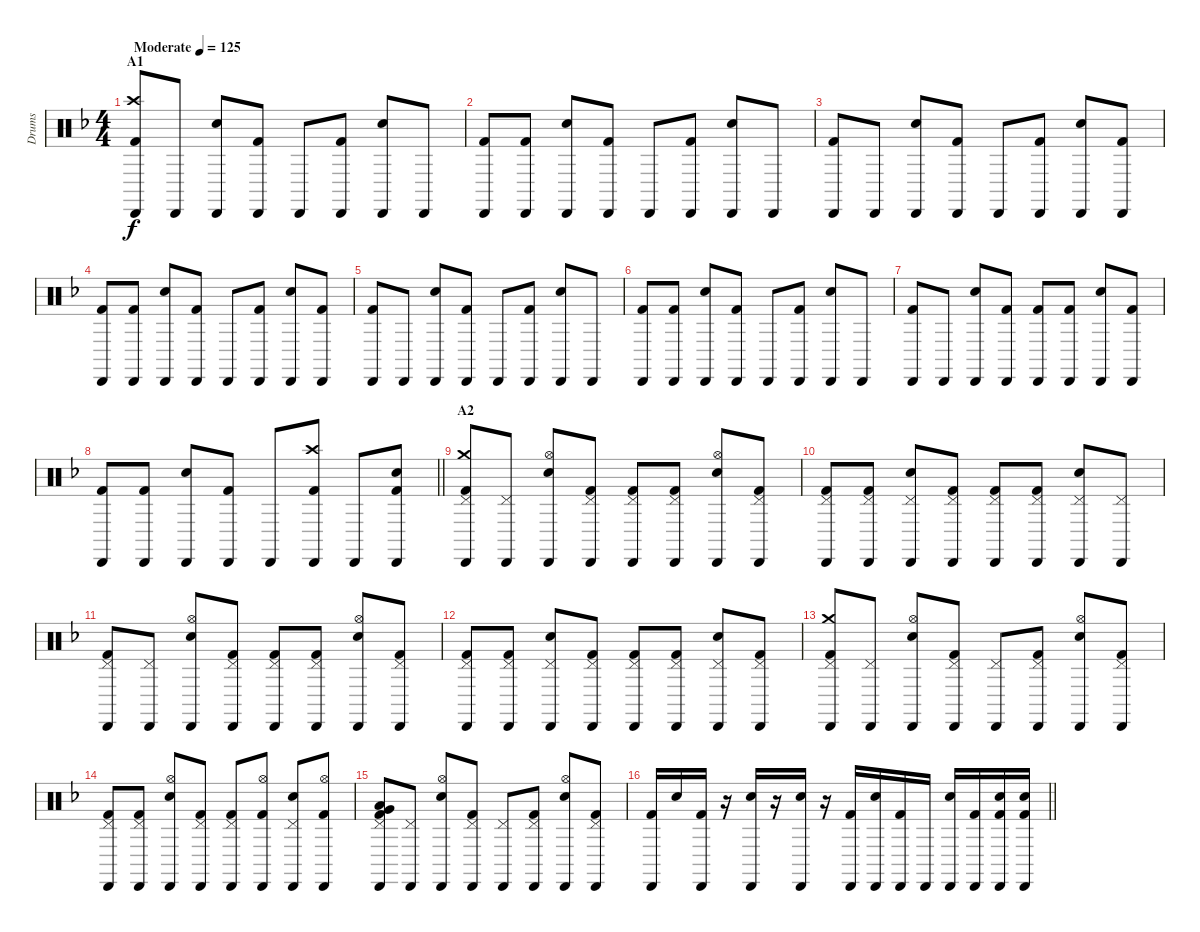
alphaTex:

\track ("Drums" "Drums") {instrument percussion}
\staff {score}
\articulation defaults
\ts (4 4)
\section ("" "A1")
\tempo (125 "Moderate")
\clef neutral
\ks f
("Cabasa (hit)" "Kick (hit) 2" "Crash high (hit)").8{dy f} "Cabasa (hit)".8 ("Cabasa (hit)" "Electric Snare (hit)").8 ("Cabasa (hit)" "Kick (hit) 2").8 "Cabasa (hit)".8 ("Cabasa (hit)" "Kick (hit) 2").8 ("Cabasa (hit)" "Electric Snare (hit)").8 "Cabasa (hit)".8 |
("Cabasa (hit)" "Kick (hit) 2").8 ("Cabasa (hit)" "Kick (hit) 2").8 ("Cabasa (hit)" "Electric Snare (hit)").8 ("Cabasa (hit)" "Kick (hit) 2").8 "Cabasa (hit)".8 ("Cabasa (hit)" "Kick (hit) 2").8 ("Cabasa (hit)" "Electric Snare (hit)").8 "Cabasa (hit)".8 |
("Cabasa (hit)" "Kick (hit) 2").8 "Cabasa (hit)".8 ("Cabasa (hit)" "Electric Snare (hit)").8 ("Cabasa (hit)" "Kick (hit) 2").8 "Cabasa (hit)".8 ("Cabasa (hit)" "Kick (hit) 2").8 ("Cabasa (hit)" "Electric Snare (hit)").8 ("Cabasa (hit)" "Kick (hit) 2").8 |
("Cabasa (hit)" "Kick (hit) 2").8 ("Cabasa (hit)" "Kick (hit) 2").8 ("Cabasa (hit)" "Electric Snare (hit)").8 ("Cabasa (hit)" "Kick (hit) 2").8 "Cabasa (hit)".8 ("Cabasa (hit)" "Kick (hit) 2").8 ("Cabasa (hit)" "Electric Snare (hit)").8 ("Cabasa (hit)" "Kick (hit) 2").8 |
("Cabasa (hit)" "Kick (hit) 2").8 "Cabasa (hit)".8 ("Cabasa (hit)" "Electric Snare (hit)").8 ("Cabasa (hit)" "Kick (hit) 2").8 "Cabasa (hit)".8 ("Cabasa (hit)" "Kick (hit) 2").8 ("Cabasa (hit)" "Electric Snare (hit)").8 "Cabasa (hit)".8 |
("Cabasa (hit)" "Kick (hit) 2").8 ("Cabasa (hit)" "Kick (hit) 2").8 ("Cabasa (hit)" "Electric Snare (hit)").8 ("Cabasa (hit)" "Kick (hit) 2").8 "Cabasa (hit)".8 ("Cabasa (hit)" "Kick (hit) 2").8 ("Cabasa (hit)" "Electric Snare (hit)").8 "Cabasa (hit)".8 |
("Cabasa (hit)" "Kick (hit) 2").8 "Cabasa (hit)".8 ("Cabasa (hit)" "Electric Snare (hit)").8 ("Cabasa (hit)" "Kick (hit) 2").8 ("Cabasa (hit)" "Kick (hit) 2").8 ("Cabasa (hit)" "Kick (hit) 2").8 ("Cabasa (hit)" "Electric Snare (hit)").8 ("Cabasa (hit)" "Kick (hit) 2").8 |
\barLineRight lightlight
("Cabasa (hit)" "Kick (hit) 2").8 ("Cabasa (hit)" "Kick (hit) 2").8 ("Cabasa (hit)" "Electric Snare (hit)").8 ("Cabasa (hit)" "Kick (hit) 2").8 "Cabasa (hit)".8 ("Cabasa (hit)" "Kick (hit) 2" "Crash high (hit)").8 "Cabasa (hit)".8 ("Cabasa (hit)" "Electric Snare (hit)" "Kick (hit) 2").8 |
\section ("" "A2")
("Cabasa (hit)" "Kick (hit) 2" "Crash medium (hit)" "Pedal Hi-Hat (hit)").8 ("Cabasa (hit)" "Pedal Hi-Hat (hit)").8 ("Cabasa (hit)" "Electric Snare (hit)" "Hi-Hat (open)").8 ("Cabasa (hit)" "Kick (hit) 2" "Pedal Hi-Hat (hit)").8 ("Cabasa (hit)" "Kick (hit) 2" "Pedal Hi-Hat (hit)").8 ("Cabasa (hit)" "Kick (hit) 2" "Pedal Hi-Hat (hit)").8 ("Cabasa (hit)" "Electric Snare (hit)" "Hi-Hat (open)").8 ("Cabasa (hit)" "Kick (hit) 2" "Pedal Hi-Hat (hit)").8 |
("Cabasa (hit)" "Kick (hit) 2" "Pedal Hi-Hat (hit)").8 ("Cabasa (hit)" "Kick (hit) 2" "Pedal Hi-Hat (hit)").8 ("Cabasa (hit)" "Electric Snare (hit)" "Pedal Hi-Hat (hit)").8 ("Cabasa (hit)" "Kick (hit) 2" "Pedal Hi-Hat (hit)").8 ("Cabasa (hit)" "Kick (hit) 2" "Pedal Hi-Hat (hit)").8 ("Cabasa (hit)" "Kick (hit) 2" "Pedal Hi-Hat (hit)").8 ("Cabasa (hit)" "Electric Snare (hit)" "Pedal Hi-Hat (hit)").8 ("Cabasa (hit)" "Pedal Hi-Hat (hit)").8 |
("Cabasa (hit)" "Kick (hit) 2" "Pedal Hi-Hat (hit)").8 ("Cabasa (hit)" "Pedal Hi-Hat (hit)").8 ("Cabasa (hit)" "Electric Snare (hit)" "Hi-Hat (open)").8 ("Cabasa (hit)" "Kick (hit) 2" "Pedal Hi-Hat (hit)").8 ("Cabasa (hit)" "Kick (hit) 2" "Pedal Hi-Hat (hit)").8 ("Cabasa (hit)" "Kick (hit) 2" "Pedal Hi-Hat (hit)").8 ("Cabasa (hit)" "Electric Snare (hit)" "Hi-Hat (open)").8 ("Cabasa (hit)" "Kick (hit) 2" "Pedal Hi-Hat (hit)").8 |
("Cabasa (hit)" "Kick (hit) 2" "Pedal Hi-Hat (hit)").8 ("Cabasa (hit)" "Kick (hit) 2" "Pedal Hi-Hat (hit)").8 ("Cabasa (hit)" "Electric Snare (hit)" "Pedal Hi-Hat (hit)").8 ("Cabasa (hit)" "Kick (hit) 2" "Pedal Hi-Hat (hit)").8 ("Cabasa (hit)" "Kick (hit) 2" "Pedal Hi-Hat (hit)").8 ("Cabasa (hit)" "Kick (hit) 2" "Pedal Hi-Hat (hit)").8 ("Cabasa (hit)" "Electric Snare (hit)" "Pedal Hi-Hat (hit)").8 ("Cabasa (hit)" "Kick (hit) 2" "Pedal Hi-Hat (hit)").8 |
("Cabasa (hit)" "Kick (hit) 2" "Crash medium (hit)" "Pedal Hi-Hat (hit)").8 ("Cabasa (hit)" "Pedal Hi-Hat (hit)").8 ("Cabasa (hit)" "Electric Snare (hit)" "Hi-Hat (open)").8 ("Cabasa (hit)" "Kick (hit) 2" "Pedal Hi-Hat (hit)").8 ("Cabasa (hit)" "Pedal Hi-Hat (hit)").8 ("Cabasa (hit)" "Kick (hit) 2" "Pedal Hi-Hat (hit)").8 ("Cabasa (hit)" "Electric Snare (hit)" "Hi-Hat (open)").8 ("Cabasa (hit)" "Kick (hit) 2" "Pedal Hi-Hat (hit)").8 |
("Cabasa (hit)" "Kick (hit) 2" "Pedal Hi-Hat (hit)").8 ("Cabasa (hit)" "Kick (hit) 2" "Pedal Hi-Hat (hit)").8 ("Cabasa (hit)" "Electric Snare (hit)" "Hi-Hat (open)").8 ("Cabasa (hit)" "Kick (hit) 2" "Pedal Hi-Hat (hit)").8 ("Cabasa (hit)" "Kick (hit) 2" "Pedal Hi-Hat (hit)").8 ("Cabasa (hit)" "Kick (hit) 2" "Hi-Hat (open)").8 ("Cabasa (hit)" "Electric Snare (hit)" "Pedal Hi-Hat (hit)").8 ("Cabasa (hit)" "Kick (hit) 2" "Hi-Hat (open)").8 |
("Cabasa (hit)" "Kick (hit) 2" "Very Low Tom (hit)" "Low Floor Tom (hit)" "Pedal Hi-Hat (hit)").8 ("Cabasa (hit)" "Pedal Hi-Hat (hit)").8 ("Cabasa (hit)" "Electric Snare (hit)" "Hi-Hat (open)").8 ("Cabasa (hit)" "Kick (hit) 2" "Pedal Hi-Hat (hit)").8 ("Cabasa (hit)" "Pedal Hi-Hat (hit)").8 ("Cabasa (hit)" "Kick (hit) 2" "Pedal Hi-Hat (hit)").8 ("Cabasa (hit)" "Electric Snare (hit)" "Hi-Hat (open)").8 ("Cabasa (hit)" "Kick (hit) 2" "Pedal Hi-Hat (hit)").8 |
\barLineRight lightlight
("Cabasa (hit)" "Kick (hit) 2").16 "Electric Snare (hit)".16 ("Cabasa (hit)" "Kick (hit) 2").16 r.16 ("Cabasa (hit)" "Electric Snare (hit)").16 r.16 ("Cabasa (hit)" "Electric Snare (hit)").16 r.16 ("Cabasa (hit)" "Kick (hit) 2").16 ("Cabasa (hit)" "Electric Snare (hit)").16 ("Cabasa (hit)" "Kick (hit) 2").16 "Cabasa (hit)".16 ("Cabasa (hit)" "Electric Snare (hit)").16 ("Cabasa (hit)" "Kick (hit) 2").16 ("Cabasa (hit)" "Electric Snare (hit)" "Kick (hit) 2").16 ("Cabasa (hit)" "Electric Snare (hit)" "Kick (hit) 2").16
